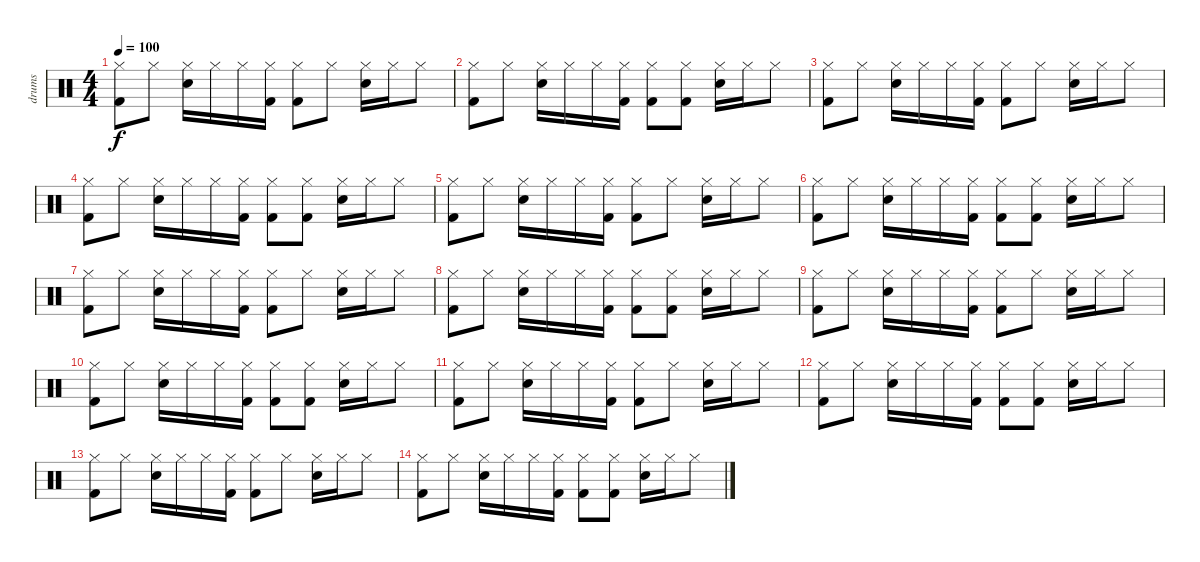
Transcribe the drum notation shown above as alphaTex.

\track ("drums" "drums") {instrument percussion}
\staff {score}
\articulation defaults
\ts (4 4)
\tempo 100
\clef neutral
\ks c
("Hi-Hat (closed)" "Kick (hit) 2").8{dy f} "Hi-Hat (closed)".8 ("Electric Snare (hit)" "Hi-Hat (closed)").16 "Hi-Hat (closed)".16 "Hi-Hat (closed)".16 ("Hi-Hat (closed)" "Kick (hit) 2").16 ("Hi-Hat (closed)" "Kick (hit) 2").8 "Hi-Hat (closed)".8 ("Electric Snare (hit)" "Hi-Hat (closed)").16 "Hi-Hat (closed)".16 "Hi-Hat (closed)".8 |
("Hi-Hat (closed)" "Kick (hit) 2").8 "Hi-Hat (closed)".8 ("Electric Snare (hit)" "Hi-Hat (closed)").16 "Hi-Hat (closed)".16 "Hi-Hat (closed)".16 ("Hi-Hat (closed)" "Kick (hit) 2").16 ("Hi-Hat (closed)" "Kick (hit) 2").8 ("Hi-Hat (closed)" "Kick (hit) 2").8 ("Electric Snare (hit)" "Hi-Hat (closed)").16 "Hi-Hat (closed)".16 "Hi-Hat (closed)".8 |
("Hi-Hat (closed)" "Kick (hit) 2").8 "Hi-Hat (closed)".8 ("Electric Snare (hit)" "Hi-Hat (closed)").16 "Hi-Hat (closed)".16 "Hi-Hat (closed)".16 ("Hi-Hat (closed)" "Kick (hit) 2").16 ("Hi-Hat (closed)" "Kick (hit) 2").8 "Hi-Hat (closed)".8 ("Electric Snare (hit)" "Hi-Hat (closed)").16 "Hi-Hat (closed)".16 "Hi-Hat (closed)".8 |
("Hi-Hat (closed)" "Kick (hit) 2").8 "Hi-Hat (closed)".8 ("Electric Snare (hit)" "Hi-Hat (closed)").16 "Hi-Hat (closed)".16 "Hi-Hat (closed)".16 ("Hi-Hat (closed)" "Kick (hit) 2").16 ("Hi-Hat (closed)" "Kick (hit) 2").8 ("Hi-Hat (closed)" "Kick (hit) 2").8 ("Electric Snare (hit)" "Hi-Hat (closed)").16 "Hi-Hat (closed)".16 "Hi-Hat (closed)".8 |
("Hi-Hat (closed)" "Kick (hit) 2").8 "Hi-Hat (closed)".8 ("Electric Snare (hit)" "Hi-Hat (closed)").16 "Hi-Hat (closed)".16 "Hi-Hat (closed)".16 ("Hi-Hat (closed)" "Kick (hit) 2").16 ("Hi-Hat (closed)" "Kick (hit) 2").8 "Hi-Hat (closed)".8 ("Electric Snare (hit)" "Hi-Hat (closed)").16 "Hi-Hat (closed)".16 "Hi-Hat (closed)".8 |
("Hi-Hat (closed)" "Kick (hit) 2").8 "Hi-Hat (closed)".8 ("Electric Snare (hit)" "Hi-Hat (closed)").16 "Hi-Hat (closed)".16 "Hi-Hat (closed)".16 ("Hi-Hat (closed)" "Kick (hit) 2").16 ("Hi-Hat (closed)" "Kick (hit) 2").8 ("Hi-Hat (closed)" "Kick (hit) 2").8 ("Electric Snare (hit)" "Hi-Hat (closed)").16 "Hi-Hat (closed)".16 "Hi-Hat (closed)".8 |
("Hi-Hat (closed)" "Kick (hit) 2").8 "Hi-Hat (closed)".8 ("Electric Snare (hit)" "Hi-Hat (closed)").16 "Hi-Hat (closed)".16 "Hi-Hat (closed)".16 ("Hi-Hat (closed)" "Kick (hit) 2").16 ("Hi-Hat (closed)" "Kick (hit) 2").8 "Hi-Hat (closed)".8 ("Electric Snare (hit)" "Hi-Hat (closed)").16 "Hi-Hat (closed)".16 "Hi-Hat (closed)".8 |
("Hi-Hat (closed)" "Kick (hit) 2").8 "Hi-Hat (closed)".8 ("Electric Snare (hit)" "Hi-Hat (closed)").16 "Hi-Hat (closed)".16 "Hi-Hat (closed)".16 ("Hi-Hat (closed)" "Kick (hit) 2").16 ("Hi-Hat (closed)" "Kick (hit) 2").8 ("Hi-Hat (closed)" "Kick (hit) 2").8 ("Electric Snare (hit)" "Hi-Hat (closed)").16 "Hi-Hat (closed)".16 "Hi-Hat (closed)".8 |
("Hi-Hat (closed)" "Kick (hit) 2").8 "Hi-Hat (closed)".8 ("Electric Snare (hit)" "Hi-Hat (closed)").16 "Hi-Hat (closed)".16 "Hi-Hat (closed)".16 ("Hi-Hat (closed)" "Kick (hit) 2").16 ("Hi-Hat (closed)" "Kick (hit) 2").8 "Hi-Hat (closed)".8 ("Electric Snare (hit)" "Hi-Hat (closed)").16 "Hi-Hat (closed)".16 "Hi-Hat (closed)".8 |
("Hi-Hat (closed)" "Kick (hit) 2").8 "Hi-Hat (closed)".8 ("Electric Snare (hit)" "Hi-Hat (closed)").16 "Hi-Hat (closed)".16 "Hi-Hat (closed)".16 ("Hi-Hat (closed)" "Kick (hit) 2").16 ("Hi-Hat (closed)" "Kick (hit) 2").8 ("Hi-Hat (closed)" "Kick (hit) 2").8 ("Electric Snare (hit)" "Hi-Hat (closed)").16 "Hi-Hat (closed)".16 "Hi-Hat (closed)".8 |
("Hi-Hat (closed)" "Kick (hit) 2").8 "Hi-Hat (closed)".8 ("Electric Snare (hit)" "Hi-Hat (closed)").16 "Hi-Hat (closed)".16 "Hi-Hat (closed)".16 ("Hi-Hat (closed)" "Kick (hit) 2").16 ("Hi-Hat (closed)" "Kick (hit) 2").8 "Hi-Hat (closed)".8 ("Electric Snare (hit)" "Hi-Hat (closed)").16 "Hi-Hat (closed)".16 "Hi-Hat (closed)".8 |
("Hi-Hat (closed)" "Kick (hit) 2").8 "Hi-Hat (closed)".8 ("Electric Snare (hit)" "Hi-Hat (closed)").16 "Hi-Hat (closed)".16 "Hi-Hat (closed)".16 ("Hi-Hat (closed)" "Kick (hit) 2").16 ("Hi-Hat (closed)" "Kick (hit) 2").8 ("Hi-Hat (closed)" "Kick (hit) 2").8 ("Electric Snare (hit)" "Hi-Hat (closed)").16 "Hi-Hat (closed)".16 "Hi-Hat (closed)".8 |
("Hi-Hat (closed)" "Kick (hit) 2").8 "Hi-Hat (closed)".8 ("Electric Snare (hit)" "Hi-Hat (closed)").16 "Hi-Hat (closed)".16 "Hi-Hat (closed)".16 ("Hi-Hat (closed)" "Kick (hit) 2").16 ("Hi-Hat (closed)" "Kick (hit) 2").8 "Hi-Hat (closed)".8 ("Electric Snare (hit)" "Hi-Hat (closed)").16 "Hi-Hat (closed)".16 "Hi-Hat (closed)".8 |
("Hi-Hat (closed)" "Kick (hit) 2").8 "Hi-Hat (closed)".8 ("Electric Snare (hit)" "Hi-Hat (closed)").16 "Hi-Hat (closed)".16 "Hi-Hat (closed)".16 ("Hi-Hat (closed)" "Kick (hit) 2").16 ("Hi-Hat (closed)" "Kick (hit) 2").8 ("Hi-Hat (closed)" "Kick (hit) 2").8 ("Electric Snare (hit)" "Hi-Hat (closed)").16 "Hi-Hat (closed)".16 "Hi-Hat (closed)".8
